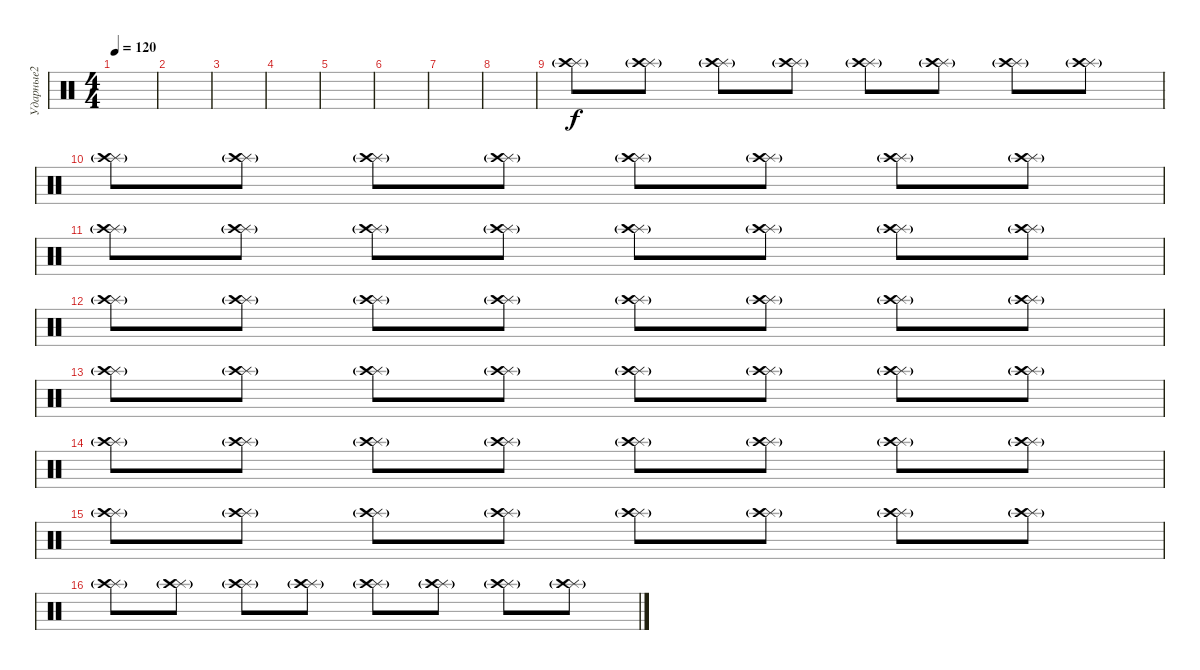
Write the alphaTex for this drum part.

\track ("Ударные2" "Ударные2") {instrument percussion bank 2}
\staff {score}
\articulation defaults
\ts (4 4)
\tempo 120
\clef neutral
\ks c
|
|
|
|
|
|
|
|
("Splash (hit)"{g} "Crash high (hit)"{g}).8 ("Splash (hit)"{g} "Crash high (hit)"{g}).8 ("Splash (hit)"{g} "Crash high (hit)"{g}).8 ("Splash (hit)"{g} "Crash high (hit)"{g}).8 ("Splash (hit)"{g} "Crash high (hit)"{g}).8 ("Splash (hit)"{g} "Crash high (hit)"{g}).8 ("Splash (hit)"{g} "Crash high (hit)"{g}).8 ("Splash (hit)"{g} "Crash high (hit)"{g}).8 |
("Splash (hit)"{g} "Crash high (hit)"{g}).8 ("Splash (hit)"{g} "Crash high (hit)"{g}).8 ("Splash (hit)"{g} "Crash high (hit)"{g}).8 ("Splash (hit)"{g} "Crash high (hit)"{g}).8 ("Splash (hit)"{g} "Crash high (hit)"{g}).8 ("Splash (hit)"{g} "Crash high (hit)"{g}).8 ("Splash (hit)"{g} "Crash high (hit)"{g}).8 ("Splash (hit)"{g} "Crash high (hit)"{g}).8 |
("Splash (hit)"{g} "Crash high (hit)"{g}).8 ("Splash (hit)"{g} "Crash high (hit)"{g}).8 ("Splash (hit)"{g} "Crash high (hit)"{g}).8 ("Splash (hit)"{g} "Crash high (hit)"{g}).8 ("Splash (hit)"{g} "Crash high (hit)"{g}).8 ("Splash (hit)"{g} "Crash high (hit)"{g}).8 ("Splash (hit)"{g} "Crash high (hit)"{g}).8 ("Splash (hit)"{g} "Crash high (hit)"{g}).8 |
("Splash (hit)"{g} "Crash high (hit)"{g}).8 ("Splash (hit)"{g} "Crash high (hit)"{g}).8 ("Splash (hit)"{g} "Crash high (hit)"{g}).8 ("Splash (hit)"{g} "Crash high (hit)"{g}).8 ("Splash (hit)"{g} "Crash high (hit)"{g}).8 ("Splash (hit)"{g} "Crash high (hit)"{g}).8 ("Splash (hit)"{g} "Crash high (hit)"{g}).8 ("Splash (hit)"{g} "Crash high (hit)"{g}).8 |
("Splash (hit)"{g} "Crash high (hit)"{g}).8 ("Splash (hit)"{g} "Crash high (hit)"{g}).8 ("Splash (hit)"{g} "Crash high (hit)"{g}).8 ("Splash (hit)"{g} "Crash high (hit)"{g}).8 ("Splash (hit)"{g} "Crash high (hit)"{g}).8 ("Splash (hit)"{g} "Crash high (hit)"{g}).8 ("Splash (hit)"{g} "Crash high (hit)"{g}).8 ("Splash (hit)"{g} "Crash high (hit)"{g}).8 |
("Splash (hit)"{g} "Crash high (hit)"{g}).8 ("Splash (hit)"{g} "Crash high (hit)"{g}).8 ("Splash (hit)"{g} "Crash high (hit)"{g}).8 ("Splash (hit)"{g} "Crash high (hit)"{g}).8 ("Splash (hit)"{g} "Crash high (hit)"{g}).8 ("Splash (hit)"{g} "Crash high (hit)"{g}).8 ("Splash (hit)"{g} "Crash high (hit)"{g}).8 ("Splash (hit)"{g} "Crash high (hit)"{g}).8 |
("Splash (hit)"{g} "Crash high (hit)"{g}).8 ("Splash (hit)"{g} "Crash high (hit)"{g}).8 ("Splash (hit)"{g} "Crash high (hit)"{g}).8 ("Splash (hit)"{g} "Crash high (hit)"{g}).8 ("Splash (hit)"{g} "Crash high (hit)"{g}).8 ("Splash (hit)"{g} "Crash high (hit)"{g}).8 ("Splash (hit)"{g} "Crash high (hit)"{g}).8 ("Splash (hit)"{g} "Crash high (hit)"{g}).8 |
("Splash (hit)"{g} "Crash high (hit)"{g}).8 ("Splash (hit)"{g} "Crash high (hit)"{g}).8 ("Splash (hit)"{g} "Crash high (hit)"{g}).8 ("Splash (hit)"{g} "Crash high (hit)"{g}).8 ("Splash (hit)"{g} "Crash high (hit)"{g}).8 ("Splash (hit)"{g} "Crash high (hit)"{g}).8 ("Splash (hit)"{g} "Crash high (hit)"{g}).8 ("Splash (hit)"{g} "Crash high (hit)"{g}).8
